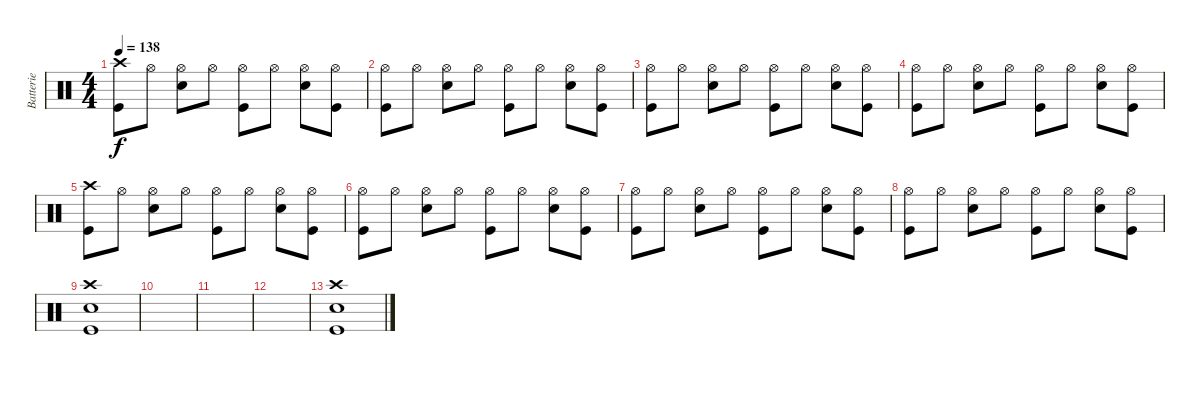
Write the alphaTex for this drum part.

\track ("Batterie" "Batterie") {instrument percussion}
\staff {score}
\articulation defaults
\ts (4 4)
\tempo 138
\clef neutral
\ks c
("Crash high (hit)" "Kick (hit)").8{dy f} "Hi-Hat (open)".8 ("Hi-Hat (open)" "Snare (hit) 2").8 "Hi-Hat (open)".8 ("Hi-Hat (open)" "Kick (hit)").8 "Hi-Hat (open)".8 ("Hi-Hat (open)" "Snare (hit) 2").8 ("Hi-Hat (open)" "Kick (hit)").8 |
("Hi-Hat (open)" "Kick (hit)").8 "Hi-Hat (open)".8 ("Hi-Hat (open)" "Snare (hit) 2").8 "Hi-Hat (open)".8 ("Hi-Hat (open)" "Kick (hit)").8 "Hi-Hat (open)".8 ("Hi-Hat (open)" "Snare (hit) 2").8 ("Hi-Hat (open)" "Kick (hit)").8 |
("Hi-Hat (open)" "Kick (hit)").8 "Hi-Hat (open)".8 ("Hi-Hat (open)" "Snare (hit) 2").8 "Hi-Hat (open)".8 ("Hi-Hat (open)" "Kick (hit)").8 "Hi-Hat (open)".8 ("Hi-Hat (open)" "Snare (hit) 2").8 ("Hi-Hat (open)" "Kick (hit)").8 |
("Hi-Hat (open)" "Kick (hit)").8 "Hi-Hat (open)".8 ("Hi-Hat (open)" "Snare (hit) 2").8 "Hi-Hat (open)".8 ("Hi-Hat (open)" "Kick (hit)").8 "Hi-Hat (open)".8 ("Hi-Hat (open)" "Snare (hit) 2").8 ("Hi-Hat (open)" "Kick (hit)").8 |
("Crash high (hit)" "Kick (hit)").8 "Hi-Hat (open)".8 ("Hi-Hat (open)" "Snare (hit) 2").8 "Hi-Hat (open)".8 ("Hi-Hat (open)" "Kick (hit)").8 "Hi-Hat (open)".8 ("Hi-Hat (open)" "Snare (hit) 2").8 ("Hi-Hat (open)" "Kick (hit)").8 |
("Hi-Hat (open)" "Kick (hit)").8 "Hi-Hat (open)".8 ("Hi-Hat (open)" "Snare (hit) 2").8 "Hi-Hat (open)".8 ("Hi-Hat (open)" "Kick (hit)").8 "Hi-Hat (open)".8 ("Hi-Hat (open)" "Snare (hit) 2").8 ("Hi-Hat (open)" "Kick (hit)").8 |
("Hi-Hat (open)" "Kick (hit)").8 "Hi-Hat (open)".8 ("Hi-Hat (open)" "Snare (hit) 2").8 "Hi-Hat (open)".8 ("Hi-Hat (open)" "Kick (hit)").8 "Hi-Hat (open)".8 ("Hi-Hat (open)" "Snare (hit) 2").8 ("Hi-Hat (open)" "Kick (hit)").8 |
("Hi-Hat (open)" "Kick (hit)").8 "Hi-Hat (open)".8 ("Hi-Hat (open)" "Snare (hit) 2").8 "Hi-Hat (open)".8 ("Hi-Hat (open)" "Kick (hit)").8 "Hi-Hat (open)".8 ("Hi-Hat (open)" "Snare (hit) 2").8 ("Hi-Hat (open)" "Kick (hit)").8 |
("Crash high (hit)" "Snare (hit) 2" "Kick (hit)").1 |
|
|
|
("Crash high (hit)" "Snare (hit) 2" "Kick (hit)").1
